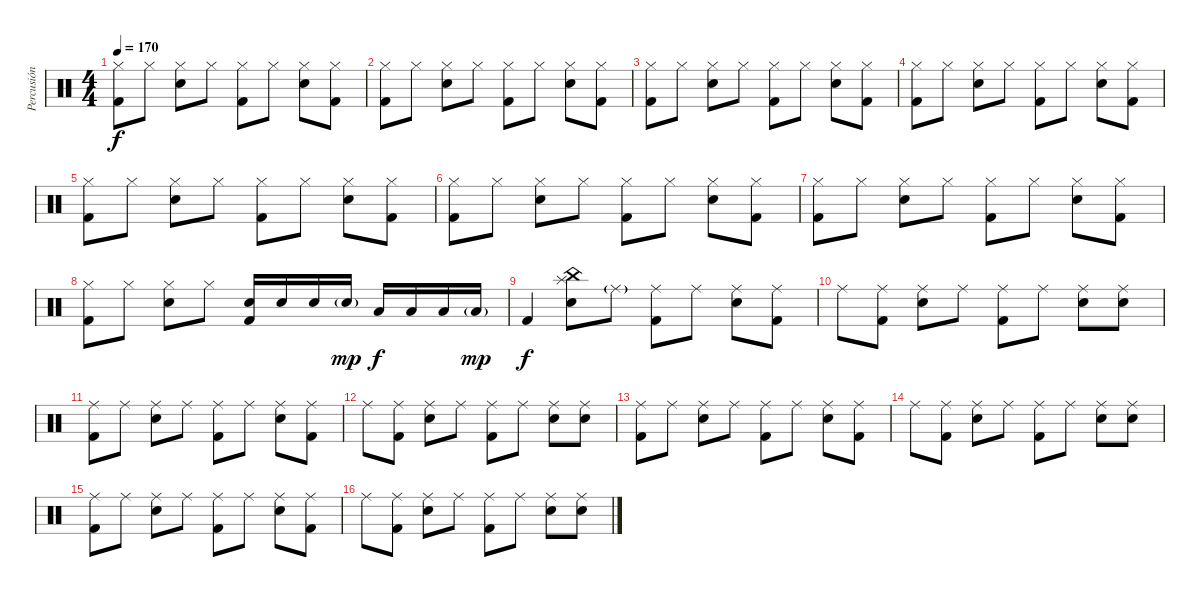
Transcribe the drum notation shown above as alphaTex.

\track ("Percusión" "Percusión") {instrument percussion}
\staff {score}
\articulation defaults
\ts (4 4)
\tempo 170
\clef neutral
\ks c
("Hi-Hat (closed)" "Kick (hit) 2").8{dy f} "Hi-Hat (closed)".8 ("Hi-Hat (closed)" "Electric Snare (hit)").8 "Hi-Hat (closed)".8 ("Hi-Hat (closed)" "Kick (hit) 2").8 "Hi-Hat (closed)".8 ("Hi-Hat (closed)" "Electric Snare (hit)").8 ("Hi-Hat (closed)" "Kick (hit) 2").8 |
("Hi-Hat (closed)" "Kick (hit) 2").8 "Hi-Hat (closed)".8 ("Hi-Hat (closed)" "Electric Snare (hit)").8 "Hi-Hat (closed)".8 ("Hi-Hat (closed)" "Kick (hit) 2").8 "Hi-Hat (closed)".8 ("Hi-Hat (closed)" "Electric Snare (hit)").8 ("Hi-Hat (closed)" "Kick (hit) 2").8 |
("Hi-Hat (closed)" "Kick (hit) 2").8 "Hi-Hat (closed)".8 ("Hi-Hat (closed)" "Electric Snare (hit)").8 "Hi-Hat (closed)".8 ("Hi-Hat (closed)" "Kick (hit) 2").8 "Hi-Hat (closed)".8 ("Hi-Hat (closed)" "Electric Snare (hit)").8 ("Hi-Hat (closed)" "Kick (hit) 2").8 |
("Hi-Hat (closed)" "Kick (hit) 2").8 "Hi-Hat (closed)".8 ("Hi-Hat (closed)" "Electric Snare (hit)").8 "Hi-Hat (closed)".8 ("Hi-Hat (closed)" "Kick (hit) 2").8 "Hi-Hat (closed)".8 ("Hi-Hat (closed)" "Electric Snare (hit)").8 ("Hi-Hat (closed)" "Kick (hit) 2").8 |
("Hi-Hat (closed)" "Kick (hit) 2").8 "Hi-Hat (closed)".8 ("Hi-Hat (closed)" "Electric Snare (hit)").8 "Hi-Hat (closed)".8 ("Hi-Hat (closed)" "Kick (hit) 2").8 "Hi-Hat (closed)".8 ("Hi-Hat (closed)" "Electric Snare (hit)").8 ("Hi-Hat (closed)" "Kick (hit) 2").8 |
("Hi-Hat (closed)" "Kick (hit) 2").8 "Hi-Hat (closed)".8 ("Hi-Hat (closed)" "Electric Snare (hit)").8 "Hi-Hat (closed)".8 ("Hi-Hat (closed)" "Kick (hit) 2").8 "Hi-Hat (closed)".8 ("Hi-Hat (closed)" "Electric Snare (hit)").8 ("Hi-Hat (closed)" "Kick (hit) 2").8 |
("Hi-Hat (closed)" "Kick (hit) 2").8 "Hi-Hat (closed)".8 ("Hi-Hat (closed)" "Electric Snare (hit)").8 "Hi-Hat (closed)".8 ("Hi-Hat (closed)" "Kick (hit) 2").8 "Hi-Hat (closed)".8 ("Hi-Hat (closed)" "Electric Snare (hit)").8 ("Hi-Hat (closed)" "Kick (hit) 2").8 |
("Hi-Hat (closed)" "Kick (hit) 2").8 "Hi-Hat (closed)".8 ("Hi-Hat (closed)" "Electric Snare (hit)").8 "Hi-Hat (closed)".8 ("Electric Snare (hit)" "Kick (hit) 2").16 "Electric Snare (hit)".16 "Electric Snare (hit)".16 "Electric Snare (hit)"{g}.16{dy mp} "Low Tom (hit)".16{dy f} "Low Tom (hit)".16 "Low Tom (hit)".16 "Low Tom (hit)"{g}.16{dy mp} |
"Kick (hit) 2".4{dy f} ("Splash (hit)" "China (hit)" "Electric Snare (hit)").8 "Ride (middle)"{g}.8 ("Ride (middle)" "Kick (hit) 2").8 "Ride (middle)".8 ("Ride (middle)" "Electric Snare (hit)").8 ("Ride (middle)" "Kick (hit) 2").8 |
"Ride (middle)".8 ("Ride (middle)" "Kick (hit) 2").8 ("Ride (middle)" "Electric Snare (hit)").8 "Ride (middle)".8 ("Ride (middle)" "Kick (hit) 2").8 "Ride (middle)".8 ("Ride (middle)" "Electric Snare (hit)").8 ("Ride (middle)" "Electric Snare (hit)").8 |
("Ride (middle)" "Kick (hit) 2").8 "Ride (middle)".8 ("Ride (middle)" "Electric Snare (hit)").8 "Ride (middle)".8 ("Ride (middle)" "Kick (hit) 2").8 "Ride (middle)".8 ("Ride (middle)" "Electric Snare (hit)").8 ("Ride (middle)" "Kick (hit) 2").8 |
"Ride (middle)".8 ("Ride (middle)" "Kick (hit) 2").8 ("Ride (middle)" "Electric Snare (hit)").8 "Ride (middle)".8 ("Ride (middle)" "Kick (hit) 2").8 "Ride (middle)".8 ("Ride (middle)" "Electric Snare (hit)").8 ("Ride (middle)" "Electric Snare (hit)").8 |
("Ride (middle)" "Kick (hit) 2").8 "Ride (middle)".8 ("Ride (middle)" "Electric Snare (hit)").8 "Ride (middle)".8 ("Ride (middle)" "Kick (hit) 2").8 "Ride (middle)".8 ("Ride (middle)" "Electric Snare (hit)").8 ("Ride (middle)" "Kick (hit) 2").8 |
"Ride (middle)".8 ("Ride (middle)" "Kick (hit) 2").8 ("Ride (middle)" "Electric Snare (hit)").8 "Ride (middle)".8 ("Ride (middle)" "Kick (hit) 2").8 "Ride (middle)".8 ("Ride (middle)" "Electric Snare (hit)").8 ("Ride (middle)" "Electric Snare (hit)").8 |
("Ride (middle)" "Kick (hit) 2").8 "Ride (middle)".8 ("Ride (middle)" "Electric Snare (hit)").8 "Ride (middle)".8 ("Ride (middle)" "Kick (hit) 2").8 "Ride (middle)".8 ("Ride (middle)" "Electric Snare (hit)").8 ("Ride (middle)" "Kick (hit) 2").8 |
"Ride (middle)".8 ("Ride (middle)" "Kick (hit) 2").8 ("Ride (middle)" "Electric Snare (hit)").8 "Ride (middle)".8 ("Ride (middle)" "Kick (hit) 2").8 "Ride (middle)".8 ("Ride (middle)" "Electric Snare (hit)").8 ("Ride (middle)" "Electric Snare (hit)").8
